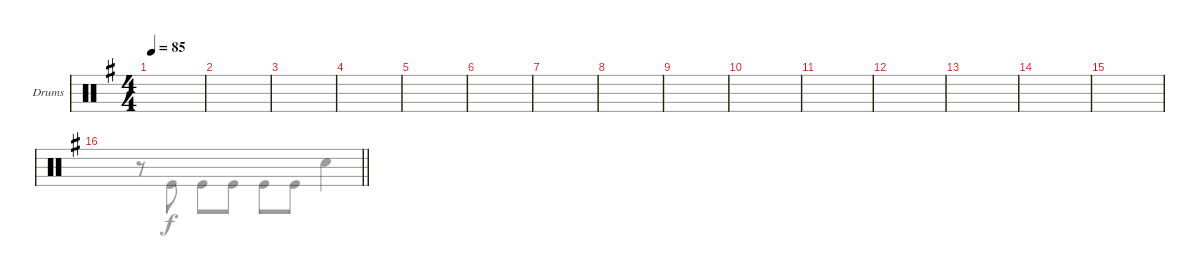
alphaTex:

\defaultSystemsLayout 4
\bracketExtendMode groupsimilarinstruments
\firstSystemTrackNameOrientation horizontal
\otherSystemsTrackNameOrientation horizontal
\track ("Drumkit" "Drums") {instrument percussion}
\staff {score}
\articulation defaults
\voice
\ts (4 4)
\scale
0.512857
\tempo 85
\accidentals auto
\clef neutral
\ottava regular
\simile none
\ks eminor
|
\scale
0.487179 |
\scale
0.514286 |
\scale
0.485755 |
\scale
0.512857 |
\scale
0.487179 |
\scale
0.508571 |
\scale
0.491453 |
\scale
0.508571 |
\scale
0.491453 |
\scale
0.502857 |
\scale
0.497151 |
\scale
0.504286 |
\scale
0.495726 |
\scale
0.491629 |
\scale
0.508794
\barLineRight lightlight
\voice
\clef neutral
\ottava regular
\simile none
\ks eminor
|
|
|
|
|
|
|
|
|
|
|
|
|
|
|
\barLineRight lightlight
r.8 "Kick (hit)".8 "Kick (hit)".8 "Kick (hit)".8 "Kick (hit)".8 "Kick (hit)".8 "Snare (hit) 2".4
